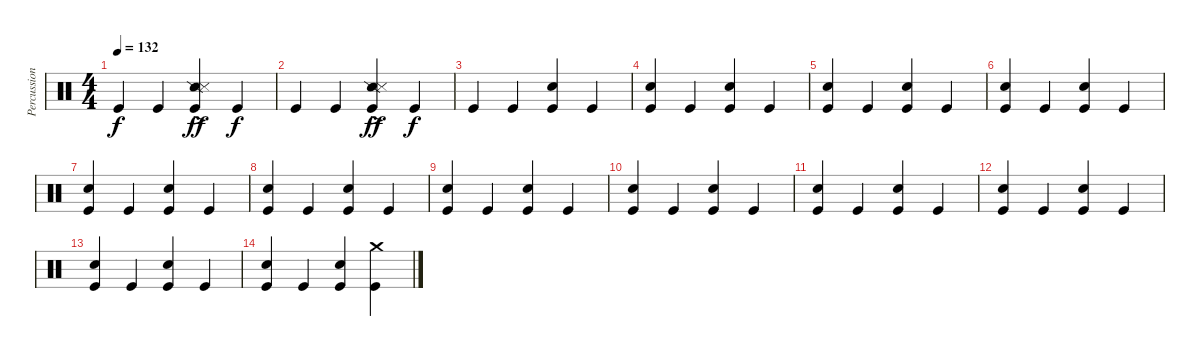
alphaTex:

\track ("Percussions" "Percussion") {instrument percussion}
\staff {score}
\articulation defaults
\ts (4 4)
\tempo 132
\clef neutral
\ks c "Kick (hit)".4{dy f} "Kick (hit)".4
("Snare (side stick) 2"{ac} "Snare (side stick) 3"{ac} "Kick (hit)").4{dy ff} "Kick (hit)".4{dy f} |
"Kick (hit)".4 "Kick (hit)".4 ("Snare (side stick) 2"{ac} "Snare (side stick) 3"{ac} "Kick (hit)").4{dy ff} "Kick (hit)".4{dy f} |
"Kick (hit)".4 "Kick (hit)".4 ("Snare (hit) 2" "Kick (hit)").4 "Kick (hit)".4 |
("Snare (hit) 2" "Kick (hit)").4 "Kick (hit)".4 ("Snare (hit) 2" "Kick (hit)").4 "Kick (hit)".4 |
("Snare (hit) 2" "Kick (hit)").4 "Kick (hit)".4 ("Snare (hit) 2" "Kick (hit)").4 "Kick (hit)".4 |
("Snare (hit) 2" "Kick (hit)").4 "Kick (hit)".4 ("Snare (hit) 2" "Kick (hit)").4 "Kick (hit)".4 |
("Snare (hit) 2" "Kick (hit)").4 "Kick (hit)".4 ("Snare (hit) 2" "Kick (hit)").4 "Kick (hit)".4 |
("Snare (hit) 2" "Kick (hit)").4 "Kick (hit)".4 ("Snare (hit) 2" "Kick (hit)").4 "Kick (hit)".4 |
("Snare (hit) 2" "Kick (hit)").4 "Kick (hit)".4 ("Snare (hit) 2" "Kick (hit)").4 "Kick (hit)".4 |
("Snare (hit) 2" "Kick (hit)").4 "Kick (hit)".4 ("Snare (hit) 2" "Kick (hit)").4 "Kick (hit)".4 |
("Snare (hit) 2" "Kick (hit)").4 "Kick (hit)".4 ("Snare (hit) 2" "Kick (hit)").4 "Kick (hit)".4 |
("Snare (hit) 2" "Kick (hit)").4 "Kick (hit)".4 ("Snare (hit) 2" "Kick (hit)").4 "Kick (hit)".4 |
("Snare (hit) 2" "Kick (hit)").4 "Kick (hit)".4 ("Snare (hit) 2" "Kick (hit)").4 "Kick (hit)".4 |
("Snare (hit) 2" "Kick (hit)").4 "Kick (hit)".4 ("Snare (hit) 2" "Kick (hit)").4 ("Crash medium (hit)" "Kick (hit)").4
